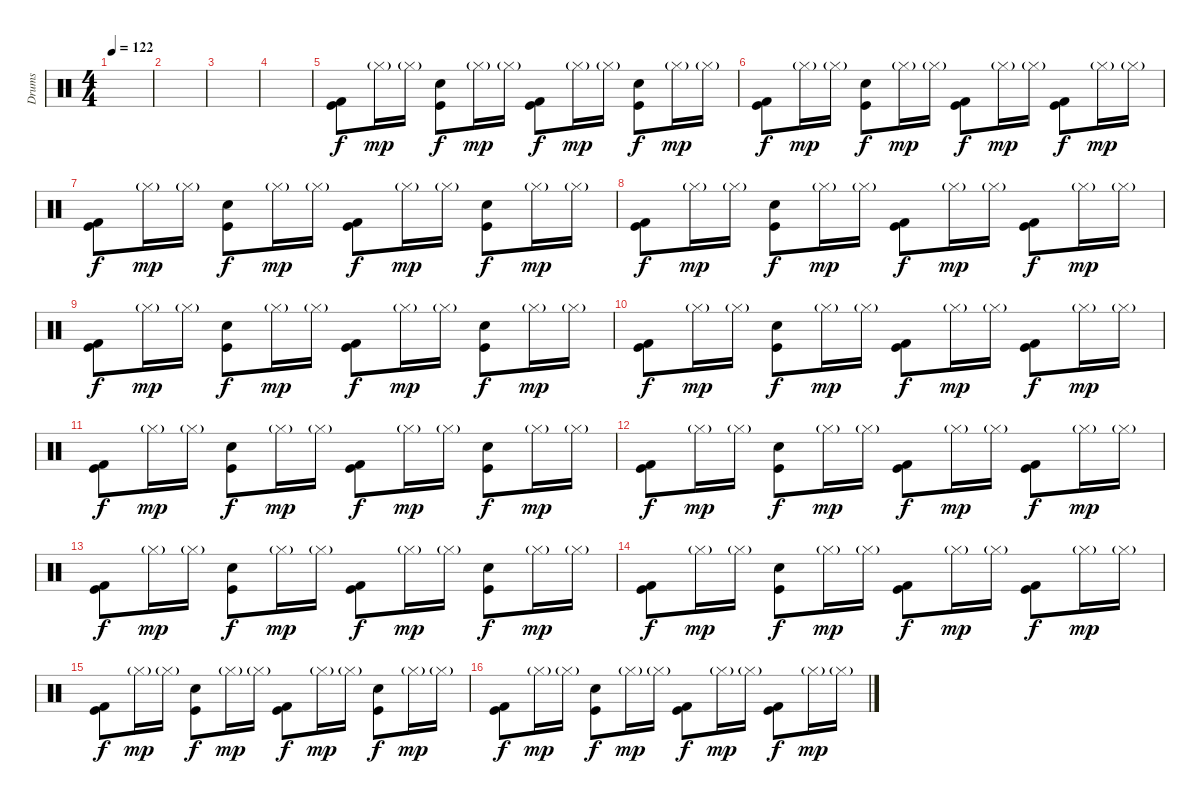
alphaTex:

\track ("Drums" "Drums") {instrument percussion}
\staff {score}
\articulation defaults
\ts (4 4)
\tempo 122
\clef neutral
\ks c
|
|
|
|
("Kick (hit)" "Kick (hit) 2").8{dy f volume 8} "Hi-Hat (closed)"{g}.16{dy mp} "Hi-Hat (closed)"{g}.16 ("Electric Snare (hit)" "Kick (hit)").8{dy f} "Hi-Hat (closed)"{g}.16{dy mp} "Hi-Hat (closed)"{g}.16 ("Kick (hit)" "Kick (hit) 2").8{dy f} "Hi-Hat (closed)"{g}.16{dy mp} "Hi-Hat (closed)"{g}.16 ("Electric Snare (hit)" "Kick (hit)").8{dy f} "Hi-Hat (closed)"{g}.16{dy mp} "Hi-Hat (closed)"{g}.16 |
("Kick (hit)" "Kick (hit) 2").8{dy f} "Hi-Hat (closed)"{g}.16{dy mp} "Hi-Hat (closed)"{g}.16 ("Electric Snare (hit)" "Kick (hit)").8{dy f} "Hi-Hat (closed)"{g}.16{dy mp} "Hi-Hat (closed)"{g}.16 ("Kick (hit)" "Kick (hit) 2").8{dy f} "Hi-Hat (closed)"{g}.16{dy mp} "Hi-Hat (closed)"{g}.16 ("Kick (hit)" "Kick (hit) 2").8{dy f} "Hi-Hat (closed)"{g}.16{dy mp} "Hi-Hat (closed)"{g}.16 |
("Kick (hit)" "Kick (hit) 2").8{dy f} "Hi-Hat (closed)"{g}.16{dy mp} "Hi-Hat (closed)"{g}.16 ("Electric Snare (hit)" "Kick (hit)").8{dy f} "Hi-Hat (closed)"{g}.16{dy mp} "Hi-Hat (closed)"{g}.16 ("Kick (hit)" "Kick (hit) 2").8{dy f} "Hi-Hat (closed)"{g}.16{dy mp} "Hi-Hat (closed)"{g}.16 ("Electric Snare (hit)" "Kick (hit)").8{dy f} "Hi-Hat (closed)"{g}.16{dy mp} "Hi-Hat (closed)"{g}.16 |
("Kick (hit)" "Kick (hit) 2").8{dy f} "Hi-Hat (closed)"{g}.16{dy mp} "Hi-Hat (closed)"{g}.16 ("Electric Snare (hit)" "Kick (hit)").8{dy f} "Hi-Hat (closed)"{g}.16{dy mp} "Hi-Hat (closed)"{g}.16 ("Kick (hit)" "Kick (hit) 2").8{dy f} "Hi-Hat (closed)"{g}.16{dy mp} "Hi-Hat (closed)"{g}.16 ("Kick (hit)" "Kick (hit) 2").8{dy f} "Hi-Hat (closed)"{g}.16{dy mp} "Hi-Hat (closed)"{g}.16 |
("Kick (hit)" "Kick (hit) 2").8{dy f volume 16} "Hi-Hat (closed)"{g}.16{dy mp} "Hi-Hat (closed)"{g}.16 ("Electric Snare (hit)" "Kick (hit)").8{dy f} "Hi-Hat (closed)"{g}.16{dy mp} "Hi-Hat (closed)"{g}.16 ("Kick (hit)" "Kick (hit) 2").8{dy f} "Hi-Hat (closed)"{g}.16{dy mp} "Hi-Hat (closed)"{g}.16 ("Electric Snare (hit)" "Kick (hit)").8{dy f} "Hi-Hat (closed)"{g}.16{dy mp} "Hi-Hat (closed)"{g}.16 |
("Kick (hit)" "Kick (hit) 2").8{dy f} "Hi-Hat (closed)"{g}.16{dy mp} "Hi-Hat (closed)"{g}.16 ("Electric Snare (hit)" "Kick (hit)").8{dy f} "Hi-Hat (closed)"{g}.16{dy mp} "Hi-Hat (closed)"{g}.16 ("Kick (hit)" "Kick (hit) 2").8{dy f} "Hi-Hat (closed)"{g}.16{dy mp} "Hi-Hat (closed)"{g}.16 ("Kick (hit)" "Kick (hit) 2").8{dy f} "Hi-Hat (closed)"{g}.16{dy mp} "Hi-Hat (closed)"{g}.16 |
("Kick (hit)" "Kick (hit) 2").8{dy f} "Hi-Hat (closed)"{g}.16{dy mp} "Hi-Hat (closed)"{g}.16 ("Electric Snare (hit)" "Kick (hit)").8{dy f} "Hi-Hat (closed)"{g}.16{dy mp} "Hi-Hat (closed)"{g}.16 ("Kick (hit)" "Kick (hit) 2").8{dy f} "Hi-Hat (closed)"{g}.16{dy mp} "Hi-Hat (closed)"{g}.16 ("Electric Snare (hit)" "Kick (hit)").8{dy f} "Hi-Hat (closed)"{g}.16{dy mp} "Hi-Hat (closed)"{g}.16 |
("Kick (hit)" "Kick (hit) 2").8{dy f} "Hi-Hat (closed)"{g}.16{dy mp} "Hi-Hat (closed)"{g}.16 ("Electric Snare (hit)" "Kick (hit)").8{dy f} "Hi-Hat (closed)"{g}.16{dy mp} "Hi-Hat (closed)"{g}.16 ("Kick (hit)" "Kick (hit) 2").8{dy f} "Hi-Hat (closed)"{g}.16{dy mp} "Hi-Hat (closed)"{g}.16 ("Kick (hit)" "Kick (hit) 2").8{dy f} "Hi-Hat (closed)"{g}.16{dy mp} "Hi-Hat (closed)"{g}.16 |
("Kick (hit)" "Kick (hit) 2").8{dy f} "Hi-Hat (closed)"{g}.16{dy mp} "Hi-Hat (closed)"{g}.16 ("Electric Snare (hit)" "Kick (hit)").8{dy f} "Hi-Hat (closed)"{g}.16{dy mp} "Hi-Hat (closed)"{g}.16 ("Kick (hit)" "Kick (hit) 2").8{dy f} "Hi-Hat (closed)"{g}.16{dy mp} "Hi-Hat (closed)"{g}.16 ("Electric Snare (hit)" "Kick (hit)").8{dy f} "Hi-Hat (closed)"{g}.16{dy mp} "Hi-Hat (closed)"{g}.16 |
("Kick (hit)" "Kick (hit) 2").8{dy f} "Hi-Hat (closed)"{g}.16{dy mp} "Hi-Hat (closed)"{g}.16 ("Electric Snare (hit)" "Kick (hit)").8{dy f} "Hi-Hat (closed)"{g}.16{dy mp} "Hi-Hat (closed)"{g}.16 ("Kick (hit)" "Kick (hit) 2").8{dy f} "Hi-Hat (closed)"{g}.16{dy mp} "Hi-Hat (closed)"{g}.16 ("Kick (hit)" "Kick (hit) 2").8{dy f} "Hi-Hat (closed)"{g}.16{dy mp} "Hi-Hat (closed)"{g}.16 |
("Kick (hit)" "Kick (hit) 2").8{dy f} "Hi-Hat (closed)"{g}.16{dy mp} "Hi-Hat (closed)"{g}.16 ("Electric Snare (hit)" "Kick (hit)").8{dy f} "Hi-Hat (closed)"{g}.16{dy mp} "Hi-Hat (closed)"{g}.16 ("Kick (hit)" "Kick (hit) 2").8{dy f} "Hi-Hat (closed)"{g}.16{dy mp} "Hi-Hat (closed)"{g}.16 ("Electric Snare (hit)" "Kick (hit)").8{dy f} "Hi-Hat (closed)"{g}.16{dy mp} "Hi-Hat (closed)"{g}.16 |
("Kick (hit)" "Kick (hit) 2").8{dy f} "Hi-Hat (closed)"{g}.16{dy mp} "Hi-Hat (closed)"{g}.16 ("Electric Snare (hit)" "Kick (hit)").8{dy f} "Hi-Hat (closed)"{g}.16{dy mp} "Hi-Hat (closed)"{g}.16 ("Kick (hit)" "Kick (hit) 2").8{dy f} "Hi-Hat (closed)"{g}.16{dy mp} "Hi-Hat (closed)"{g}.16 ("Kick (hit)" "Kick (hit) 2").8{dy f} "Hi-Hat (closed)"{g}.16{dy mp} "Hi-Hat (closed)"{g}.16
